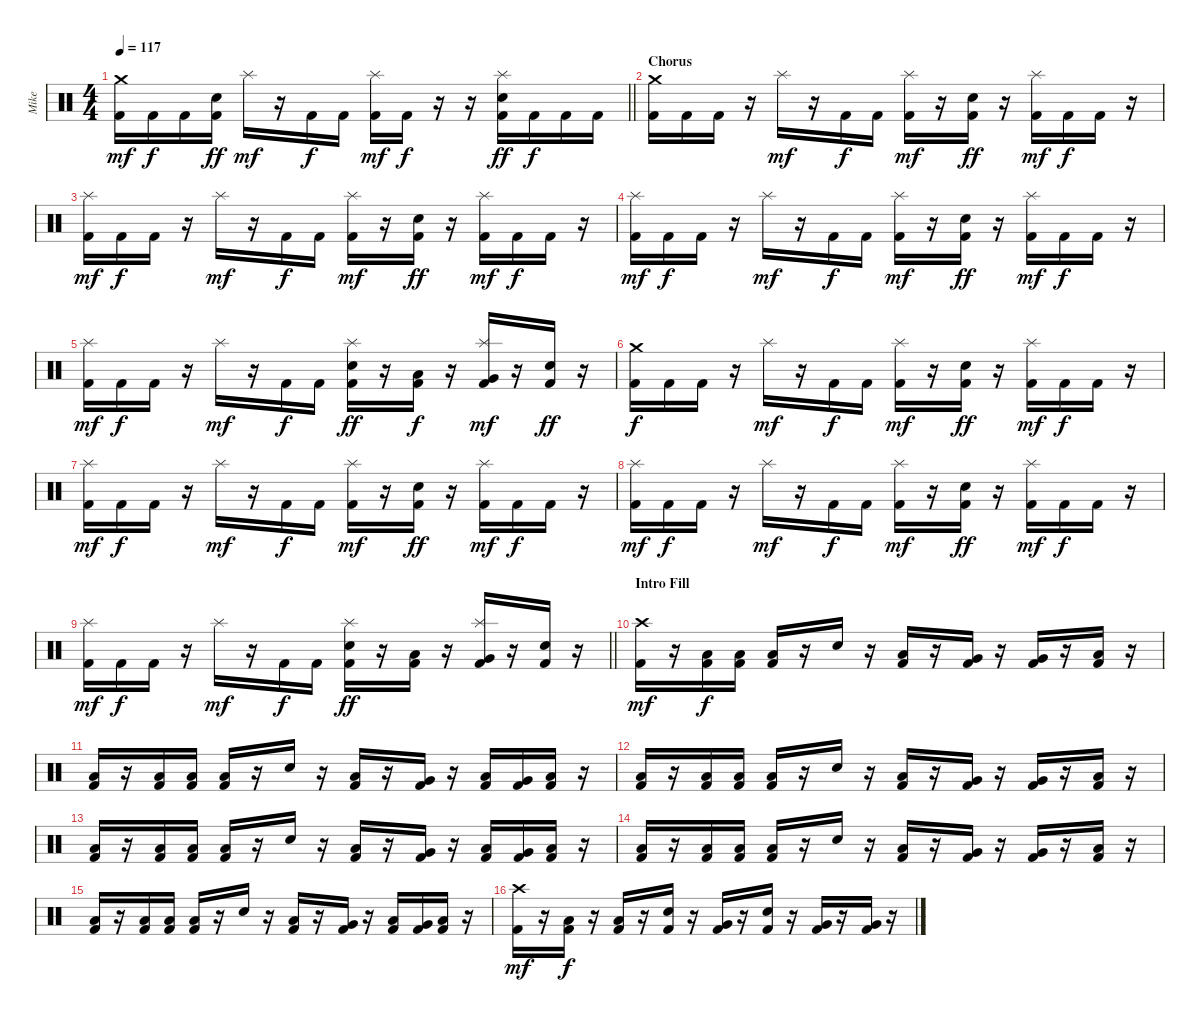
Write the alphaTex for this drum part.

\track ("Mike" "Mike") {instrument percussion}
\staff {score}
\articulation defaults
\ts (4 4)
\tempo 117
\clef neutral
\barLineRight lightlight
\ks c
("Crash medium (hit)" "Kick (hit) 2").16{dy mf} "Kick (hit) 2".16{dy f} "Kick (hit) 2".16 ("Snare (hit) 2" "Kick (hit) 2").16{dy ff} "Splash (hit)".16{dy mf} r.16 "Kick (hit) 2".16{dy f} "Kick (hit) 2".16 ("Splash (hit)" "Kick (hit) 2").16{dy mf} "Kick (hit) 2".16{dy f} r.16 r.16 ("Splash (hit)" "Snare (hit) 2" "Kick (hit) 2").16{dy ff} "Kick (hit) 2".16{dy f} "Kick (hit) 2".16 "Kick (hit) 2".16 |
\section ("" "Chorus")
("Crash medium (hit)" "Kick (hit) 2").16 "Kick (hit) 2".16 "Kick (hit) 2".16 r.16 "Splash (hit)".16{dy mf} r.16 "Kick (hit) 2".16{dy f} "Kick (hit) 2".16 ("Splash (hit)" "Kick (hit) 2").16{dy mf} r.16 ("Snare (hit) 2" "Kick (hit) 2").16{dy ff} r.16 ("Splash (hit)" "Kick (hit) 2").16{dy mf} "Kick (hit) 2".16{dy f} "Kick (hit) 2".16 r.16 |
("Splash (hit)" "Kick (hit) 2").16{dy mf} "Kick (hit) 2".16{dy f} "Kick (hit) 2".16 r.16 "Splash (hit)".16{dy mf} r.16 "Kick (hit) 2".16{dy f} "Kick (hit) 2".16 ("Splash (hit)" "Kick (hit) 2").16{dy mf} r.16 ("Snare (hit) 2" "Kick (hit) 2").16{dy ff} r.16 ("Splash (hit)" "Kick (hit) 2").16{dy mf} "Kick (hit) 2".16{dy f} "Kick (hit) 2".16 r.16 |
("Splash (hit)" "Kick (hit) 2").16{dy mf} "Kick (hit) 2".16{dy f} "Kick (hit) 2".16 r.16 "Splash (hit)".16{dy mf} r.16 "Kick (hit) 2".16{dy f} "Kick (hit) 2".16 ("Splash (hit)" "Kick (hit) 2").16{dy mf} r.16 ("Snare (hit) 2" "Kick (hit) 2").16{dy ff} r.16 ("Splash (hit)" "Kick (hit) 2").16{dy mf} "Kick (hit) 2".16{dy f} "Kick (hit) 2".16 r.16 |
("Splash (hit)" "Kick (hit) 2").16{dy mf} "Kick (hit) 2".16{dy f} "Kick (hit) 2".16 r.16 "Splash (hit)".16{dy mf} r.16 "Kick (hit) 2".16{dy f} "Kick (hit) 2".16 ("Splash (hit)" "Snare (hit) 2" "Kick (hit) 2").16{dy ff} r.16 ("Low Tom (hit)" "Kick (hit) 2").16{dy f} r.16 ("Splash (hit)" "Very Low Tom (hit)" "Kick (hit) 2").16{dy mf} r.16 ("Snare (hit) 2" "Kick (hit) 2").16{dy ff} r.16 |
("Crash medium (hit)" "Kick (hit) 2").16{dy f} "Kick (hit) 2".16 "Kick (hit) 2".16 r.16 "Splash (hit)".16{dy mf} r.16 "Kick (hit) 2".16{dy f} "Kick (hit) 2".16 ("Splash (hit)" "Kick (hit) 2").16{dy mf} r.16 ("Snare (hit) 2" "Kick (hit) 2").16{dy ff} r.16 ("Splash (hit)" "Kick (hit) 2").16{dy mf} "Kick (hit) 2".16{dy f} "Kick (hit) 2".16 r.16 |
("Splash (hit)" "Kick (hit) 2").16{dy mf} "Kick (hit) 2".16{dy f} "Kick (hit) 2".16 r.16 "Splash (hit)".16{dy mf} r.16 "Kick (hit) 2".16{dy f} "Kick (hit) 2".16 ("Splash (hit)" "Kick (hit) 2").16{dy mf} r.16 ("Snare (hit) 2" "Kick (hit) 2").16{dy ff} r.16 ("Splash (hit)" "Kick (hit) 2").16{dy mf} "Kick (hit) 2".16{dy f} "Kick (hit) 2".16 r.16 |
("Splash (hit)" "Kick (hit) 2").16{dy mf} "Kick (hit) 2".16{dy f} "Kick (hit) 2".16 r.16 "Splash (hit)".16{dy mf} r.16 "Kick (hit) 2".16{dy f} "Kick (hit) 2".16 ("Splash (hit)" "Kick (hit) 2").16{dy mf} r.16 ("Snare (hit) 2" "Kick (hit) 2").16{dy ff} r.16 ("Splash (hit)" "Kick (hit) 2").16{dy mf} "Kick (hit) 2".16{dy f} "Kick (hit) 2".16 r.16 |
\barLineRight lightlight
("Splash (hit)" "Kick (hit) 2").16{dy mf} "Kick (hit) 2".16{dy f} "Kick (hit) 2".16 r.16 "Splash (hit)".16{dy mf} r.16 "Kick (hit) 2".16{dy f} "Kick (hit) 2".16 ("Splash (hit)" "Snare (hit) 2" "Kick (hit) 2").16{dy ff} r.16 ("Low Tom (hit)" "Kick (hit) 2").16 r.16 ("Splash (hit)" "Very Low Tom (hit)" "Kick (hit) 2").16 r.16 ("Snare (hit) 2" "Kick (hit) 2").16 r.16 |
\section ("" "Intro Fill")
("Crash high (hit)" "Kick (hit) 2").16{dy mf} r.16 ("Low Tom (hit)" "Kick (hit) 2").16{dy f} ("Low Tom (hit)" "Kick (hit) 2").16 ("Low Tom (hit)" "Kick (hit) 2").16 r.16 "Snare (hit) 2".16 r.16 ("Low Tom (hit)" "Kick (hit) 2").16 r.16 ("Very Low Tom (hit)" "Kick (hit) 2").16 r.16 ("Very Low Tom (hit)" "Kick (hit) 2").16 r.16 ("Low Tom (hit)" "Kick (hit) 2").16 r.16 |
("Low Tom (hit)" "Kick (hit) 2").16 r.16 ("Low Tom (hit)" "Kick (hit) 2").16 ("Low Tom (hit)" "Kick (hit) 2").16 ("Low Tom (hit)" "Kick (hit) 2").16 r.16 "Snare (hit) 2".16 r.16 ("Low Tom (hit)" "Kick (hit) 2").16 r.16 ("Very Low Tom (hit)" "Kick (hit) 2").16 r.16 ("Low Tom (hit)" "Kick (hit) 2").16 ("Very Low Tom (hit)" "Kick (hit) 2").16 ("Low Floor Tom (hit)" "Kick (hit) 2").16 r.16 |
("Low Tom (hit)" "Kick (hit) 2").16 r.16 ("Low Tom (hit)" "Kick (hit) 2").16 ("Low Tom (hit)" "Kick (hit) 2").16 ("Low Tom (hit)" "Kick (hit) 2").16 r.16 "Snare (hit) 2".16 r.16 ("Low Tom (hit)" "Kick (hit) 2").16 r.16 ("Very Low Tom (hit)" "Kick (hit) 2").16 r.16 ("Very Low Tom (hit)" "Kick (hit) 2").16 r.16 ("Low Tom (hit)" "Kick (hit) 2").16 r.16 |
("Low Tom (hit)" "Kick (hit) 2").16 r.16 ("Low Tom (hit)" "Kick (hit) 2").16 ("Low Tom (hit)" "Kick (hit) 2").16 ("Low Tom (hit)" "Kick (hit) 2").16 r.16 "Snare (hit) 2".16 r.16 ("Low Tom (hit)" "Kick (hit) 2").16 r.16 ("Very Low Tom (hit)" "Kick (hit) 2").16 r.16 ("Low Tom (hit)" "Kick (hit) 2").16 ("Very Low Tom (hit)" "Kick (hit) 2").16 ("Low Floor Tom (hit)" "Kick (hit) 2").16 r.16 |
("Low Tom (hit)" "Kick (hit) 2").16 r.16 ("Low Tom (hit)" "Kick (hit) 2").16 ("Low Tom (hit)" "Kick (hit) 2").16 ("Low Tom (hit)" "Kick (hit) 2").16 r.16 "Snare (hit) 2".16 r.16 ("Low Tom (hit)" "Kick (hit) 2").16 r.16 ("Very Low Tom (hit)" "Kick (hit) 2").16 r.16 ("Very Low Tom (hit)" "Kick (hit) 2").16 r.16 ("Low Tom (hit)" "Kick (hit) 2").16 r.16 |
("Low Tom (hit)" "Kick (hit) 2").16 r.16 ("Low Tom (hit)" "Kick (hit) 2").16 ("Low Tom (hit)" "Kick (hit) 2").16 ("Low Tom (hit)" "Kick (hit) 2").16 r.16 "Snare (hit) 2".16 r.16 ("Low Tom (hit)" "Kick (hit) 2").16 r.16 ("Very Low Tom (hit)" "Kick (hit) 2").16 r.16 ("Low Tom (hit)" "Kick (hit) 2").16 ("Very Low Tom (hit)" "Kick (hit) 2").16 ("Low Floor Tom (hit)" "Kick (hit) 2").16 r.16 |
("Crash high (hit)" "Kick (hit) 2").16{dy mf} r.16 ("Low Tom (hit)" "Kick (hit) 2").16{dy f} r.16 ("Low Tom (hit)" "Kick (hit) 2").16 r.16 ("Snare (hit) 2" "Kick (hit) 2").16 r.16 ("Very Low Tom (hit)" "Kick (hit) 2").16 r.16 ("Snare (hit) 2" "Kick (hit) 2").16 r.16 ("Very Low Tom (hit)" "Kick (hit) 2").16 r.16 ("Very Low Tom (hit)" "Kick (hit) 2").16 r.16
